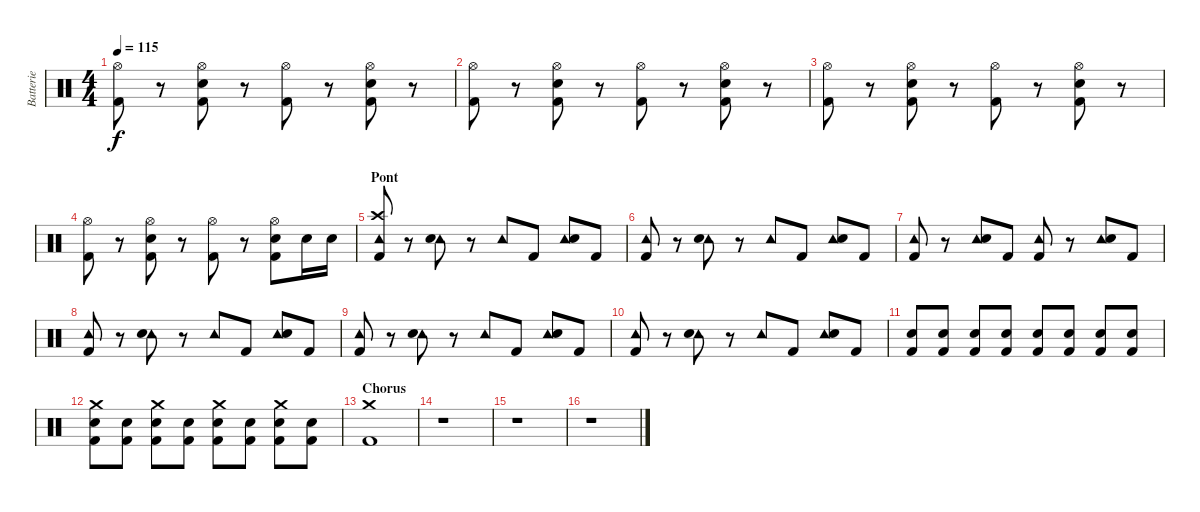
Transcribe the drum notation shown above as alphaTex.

\track ("Batterie" "Batterie") {instrument percussion}
\staff {score}
\articulation defaults
\ts (4 4)
\tempo 115
\clef neutral
\ks c
("Hi-Hat (open)" "Kick (hit) 2").8{dy f} r.8 ("Electric Snare (hit)" "Hi-Hat (open)" "Kick (hit) 2").8 r.8 ("Hi-Hat (open)" "Kick (hit) 2").8 r.8 ("Electric Snare (hit)" "Hi-Hat (open)" "Kick (hit) 2").8 r.8 |
("Hi-Hat (open)" "Kick (hit) 2").8 r.8 ("Electric Snare (hit)" "Hi-Hat (open)" "Kick (hit) 2").8 r.8 ("Hi-Hat (open)" "Kick (hit) 2").8 r.8 ("Electric Snare (hit)" "Hi-Hat (open)" "Kick (hit) 2").8 r.8 |
("Hi-Hat (open)" "Kick (hit) 2").8 r.8 ("Electric Snare (hit)" "Hi-Hat (open)" "Kick (hit) 2").8 r.8 ("Hi-Hat (open)" "Kick (hit) 2").8 r.8 ("Electric Snare (hit)" "Hi-Hat (open)" "Kick (hit) 2").8 r.8 |
("Hi-Hat (open)" "Kick (hit) 2").8 r.8 ("Electric Snare (hit)" "Hi-Hat (open)" "Kick (hit) 2").8 r.8 ("Hi-Hat (open)" "Kick (hit) 2").8 r.8 ("Electric Snare (hit)" "Hi-Hat (open)" "Kick (hit) 2").8 "Electric Snare (hit)".16 "Electric Snare (hit)".16 |
\section ("" "Pont")
("Crash high (hit)" "Tambourine (hit)" "Kick (hit) 2").8{volume 16} r.8 ("Tambourine (hit)" "Electric Snare (hit)").8 r.8 "Tambourine (hit)".8 "Kick (hit) 2".8 ("Tambourine (hit)" "Electric Snare (hit)").8 "Kick (hit) 2".8 |
("Tambourine (hit)" "Kick (hit) 2").8 r.8 ("Tambourine (hit)" "Electric Snare (hit)").8 r.8 "Tambourine (hit)".8 "Kick (hit) 2".8 ("Tambourine (hit)" "Electric Snare (hit)").8 "Kick (hit) 2".8 |
("Tambourine (hit)" "Kick (hit) 2").8 r.8 ("Tambourine (hit)" "Electric Snare (hit)").8 "Kick (hit) 2".8 ("Tambourine (hit)" "Kick (hit) 2").8 r.8 ("Tambourine (hit)" "Electric Snare (hit)").8 "Kick (hit) 2".8 |
("Tambourine (hit)" "Kick (hit) 2").8 r.8 ("Tambourine (hit)" "Electric Snare (hit)").8 r.8 "Tambourine (hit)".8 "Kick (hit) 2".8 ("Tambourine (hit)" "Electric Snare (hit)").8 "Kick (hit) 2".8 |
("Tambourine (hit)" "Kick (hit) 2").8 r.8 ("Tambourine (hit)" "Electric Snare (hit)").8 r.8 "Tambourine (hit)".8 "Kick (hit) 2".8 ("Tambourine (hit)" "Electric Snare (hit)").8 "Kick (hit) 2".8 |
("Tambourine (hit)" "Kick (hit) 2").8 r.8 ("Tambourine (hit)" "Electric Snare (hit)").8 r.8 "Tambourine (hit)".8 "Kick (hit) 2".8 ("Tambourine (hit)" "Electric Snare (hit)").8 "Kick (hit) 2".8 |
("Electric Snare (hit)" "Kick (hit) 2").8 ("Electric Snare (hit)" "Kick (hit) 2").8 ("Electric Snare (hit)" "Kick (hit) 2").8 ("Electric Snare (hit)" "Kick (hit) 2").8 ("Electric Snare (hit)" "Kick (hit) 2").8 ("Electric Snare (hit)" "Kick (hit) 2").8 ("Electric Snare (hit)" "Kick (hit) 2").8 ("Electric Snare (hit)" "Kick (hit) 2").8 |
("Crash medium (hit)" "Electric Snare (hit)" "Kick (hit) 2").8 ("Electric Snare (hit)" "Kick (hit) 2").8 ("Crash medium (hit)" "Electric Snare (hit)" "Kick (hit) 2").8 ("Electric Snare (hit)" "Kick (hit) 2").8 ("Crash medium (hit)" "Electric Snare (hit)" "Kick (hit) 2").8 ("Electric Snare (hit)" "Kick (hit) 2").8 ("Crash medium (hit)" "Electric Snare (hit)" "Kick (hit) 2").8 ("Electric Snare (hit)" "Kick (hit) 2").8 |
\section ("" "Chorus")
("Crash medium (hit)" "Kick (hit) 2").1 |
r.1 |
r.1 |
r.1
